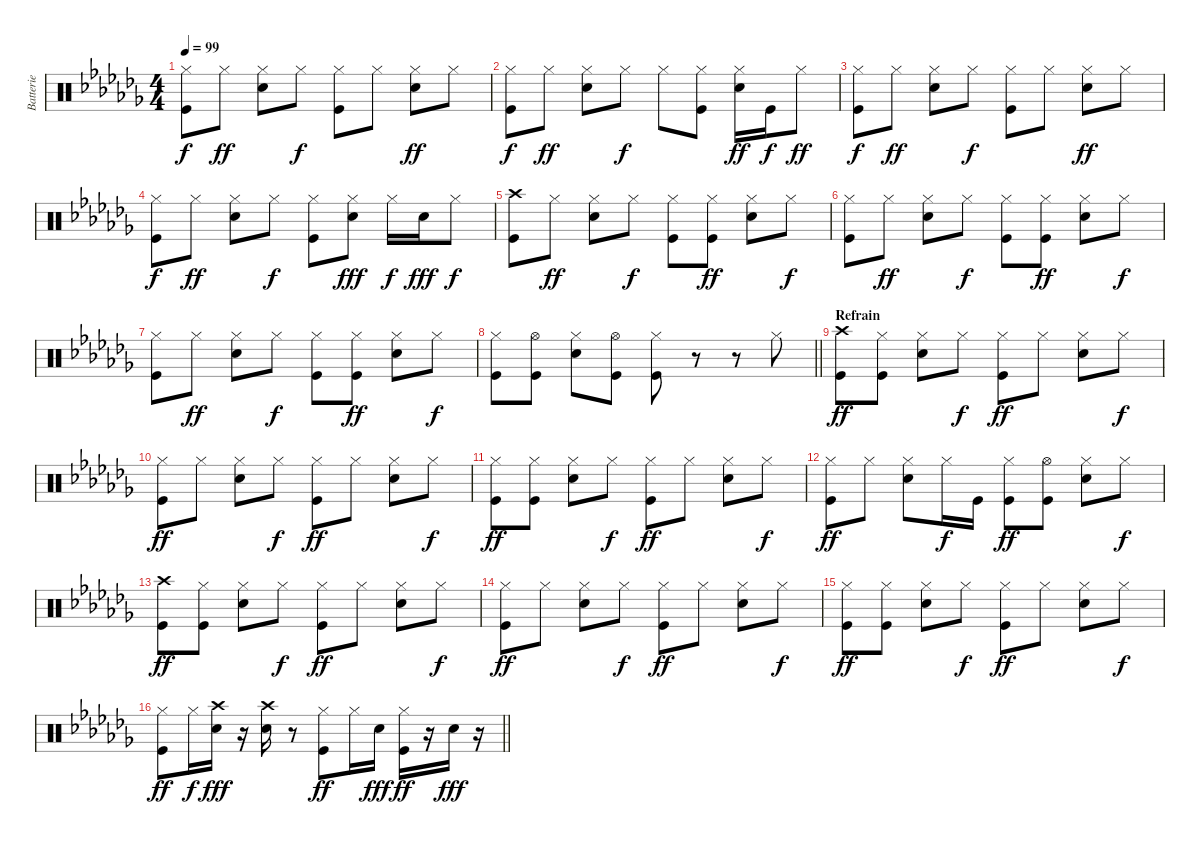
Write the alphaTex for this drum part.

\track ("Batterie" "Batterie") {instrument percussion}
\staff {score}
\articulation defaults
\ts (4 4)
\tempo 99
\clef neutral
\ks cb
("Hi-Hat (closed)" "Kick (hit)").8{dy f} "Hi-Hat (closed)".8{dy ff} ("Hi-Hat (closed)" "Snare (hit) 2").8 "Hi-Hat (closed)".8{dy f} ("Hi-Hat (closed)" "Kick (hit)").8 "Hi-Hat (closed)".8 ("Hi-Hat (closed)" "Snare (hit) 2").8{dy ff} "Hi-Hat (closed)".8 |
("Hi-Hat (closed)" "Kick (hit)").8{dy f} "Hi-Hat (closed)".8{dy ff} ("Hi-Hat (closed)" "Snare (hit) 2").8 "Hi-Hat (closed)".8{dy f} "Hi-Hat (closed)".8 ("Hi-Hat (closed)" "Kick (hit)").8 ("Hi-Hat (closed)" "Snare (hit) 2").16{dy ff} "Kick (hit)".16{dy f} "Hi-Hat (closed)".8{dy ff} |
("Hi-Hat (closed)" "Kick (hit)").8{dy f} "Hi-Hat (closed)".8{dy ff} ("Hi-Hat (closed)" "Snare (hit) 2").8 "Hi-Hat (closed)".8{dy f} ("Hi-Hat (closed)" "Kick (hit)").8 "Hi-Hat (closed)".8 ("Hi-Hat (closed)" "Snare (hit) 2").8{dy ff} "Hi-Hat (closed)".8 |
("Hi-Hat (closed)" "Kick (hit)").8{dy f} "Hi-Hat (closed)".8{dy ff} ("Hi-Hat (closed)" "Snare (hit) 2").8 "Hi-Hat (closed)".8{dy f} ("Hi-Hat (closed)" "Kick (hit)").8 ("Hi-Hat (closed)" "Snare (hit) 2").8{dy fff} "Hi-Hat (closed)".16{dy f} "Snare (hit) 2".16{dy fff} "Hi-Hat (closed)".8{dy f} |
("Crash high (hit)" "Kick (hit)").8 "Hi-Hat (closed)".8{dy ff} ("Hi-Hat (closed)" "Snare (hit) 2").8 "Hi-Hat (closed)".8{dy f} ("Hi-Hat (closed)" "Kick (hit)").8 ("Hi-Hat (closed)" "Kick (hit)").8{dy ff} ("Hi-Hat (closed)" "Snare (hit) 2").8 "Hi-Hat (closed)".8{dy f} |
("Hi-Hat (closed)" "Kick (hit)").8 "Hi-Hat (closed)".8{dy ff} ("Hi-Hat (closed)" "Snare (hit) 2").8 "Hi-Hat (closed)".8{dy f} ("Hi-Hat (closed)" "Kick (hit)").8 ("Hi-Hat (closed)" "Kick (hit)").8{dy ff} ("Hi-Hat (closed)" "Snare (hit) 2").8 "Hi-Hat (closed)".8{dy f} |
("Hi-Hat (closed)" "Kick (hit)").8 "Hi-Hat (closed)".8{dy ff} ("Hi-Hat (closed)" "Snare (hit) 2").8 "Hi-Hat (closed)".8{dy f} ("Hi-Hat (closed)" "Kick (hit)").8 ("Hi-Hat (closed)" "Kick (hit)").8{dy ff} ("Hi-Hat (closed)" "Snare (hit) 2").8 "Hi-Hat (closed)".8{dy f} |
\barLineRight lightlight
("Hi-Hat (closed)" "Kick (hit)").8 ("Hi-Hat (open)" "Kick (hit)").8 ("Hi-Hat (closed)" "Snare (hit) 2").8 ("Hi-Hat (open)" "Kick (hit)").8 ("Hi-Hat (closed)" "Kick (hit)").8 r.8 r.8 "Hi-Hat (closed)".8 |
\section ("" "Refrain")
("Crash high (hit)" "Kick (hit)").8{dy ff} ("Hi-Hat (closed)" "Kick (hit)").8 ("Hi-Hat (closed)" "Snare (hit) 2").8 "Hi-Hat (closed)".8{dy f} ("Hi-Hat (closed)" "Kick (hit)").8{dy ff} "Hi-Hat (closed)".8 ("Hi-Hat (closed)" "Snare (hit) 2").8 "Hi-Hat (closed)".8{dy f} |
("Hi-Hat (closed)" "Kick (hit)").8{dy ff} "Hi-Hat (closed)".8 ("Hi-Hat (closed)" "Snare (hit) 2").8 "Hi-Hat (closed)".8{dy f} ("Hi-Hat (closed)" "Kick (hit)").8{dy ff} "Hi-Hat (closed)".8 ("Hi-Hat (closed)" "Snare (hit) 2").8 "Hi-Hat (closed)".8{dy f} |
("Hi-Hat (closed)" "Kick (hit)").8{dy ff} ("Hi-Hat (closed)" "Kick (hit)").8 ("Hi-Hat (closed)" "Snare (hit) 2").8 "Hi-Hat (closed)".8{dy f} ("Hi-Hat (closed)" "Kick (hit)").8{dy ff} "Hi-Hat (closed)".8 ("Hi-Hat (closed)" "Snare (hit) 2").8 "Hi-Hat (closed)".8{dy f} |
("Hi-Hat (closed)" "Kick (hit)").8{dy ff} "Hi-Hat (closed)".8 ("Hi-Hat (closed)" "Snare (hit) 2").8 "Hi-Hat (closed)".16{dy f} "Kick (hit)".16 ("Hi-Hat (closed)" "Kick (hit)").8{dy ff} ("Hi-Hat (open)" "Kick (hit)").8 ("Hi-Hat (closed)" "Snare (hit) 2").8 "Hi-Hat (closed)".8{dy f} |
("Crash high (hit)" "Kick (hit)").8{dy ff} ("Hi-Hat (closed)" "Kick (hit)").8 ("Hi-Hat (closed)" "Snare (hit) 2").8 "Hi-Hat (closed)".8{dy f} ("Hi-Hat (closed)" "Kick (hit)").8{dy ff} "Hi-Hat (closed)".8 ("Hi-Hat (closed)" "Snare (hit) 2").8 "Hi-Hat (closed)".8{dy f} |
("Hi-Hat (closed)" "Kick (hit)").8{dy ff} "Hi-Hat (closed)".8 ("Hi-Hat (closed)" "Snare (hit) 2").8 "Hi-Hat (closed)".8{dy f} ("Hi-Hat (closed)" "Kick (hit)").8{dy ff} "Hi-Hat (closed)".8 ("Hi-Hat (closed)" "Snare (hit) 2").8 "Hi-Hat (closed)".8{dy f} |
("Hi-Hat (closed)" "Kick (hit)").8{dy ff} ("Hi-Hat (closed)" "Kick (hit)").8 ("Hi-Hat (closed)" "Snare (hit) 2").8 "Hi-Hat (closed)".8{dy f} ("Hi-Hat (closed)" "Kick (hit)").8{dy ff} "Hi-Hat (closed)".8 ("Hi-Hat (closed)" "Snare (hit) 2").8 "Hi-Hat (closed)".8{dy f} |
\barLineRight lightlight
("Hi-Hat (closed)" "Kick (hit)").8{dy ff} "Hi-Hat (closed)".16{dy f} ("Crash high (hit)" "Snare (hit) 2").16{dy fff} r.16 ("Crash high (hit)" "Snare (hit) 2").16 r.8 ("Hi-Hat (closed)" "Kick (hit)").8{dy ff} "Hi-Hat (closed)".16 "Snare (hit) 2".16{dy fff} ("Hi-Hat (closed)" "Kick (hit)").16{dy ff} r.16 "Snare (hit) 2".16{dy fff} r.16
